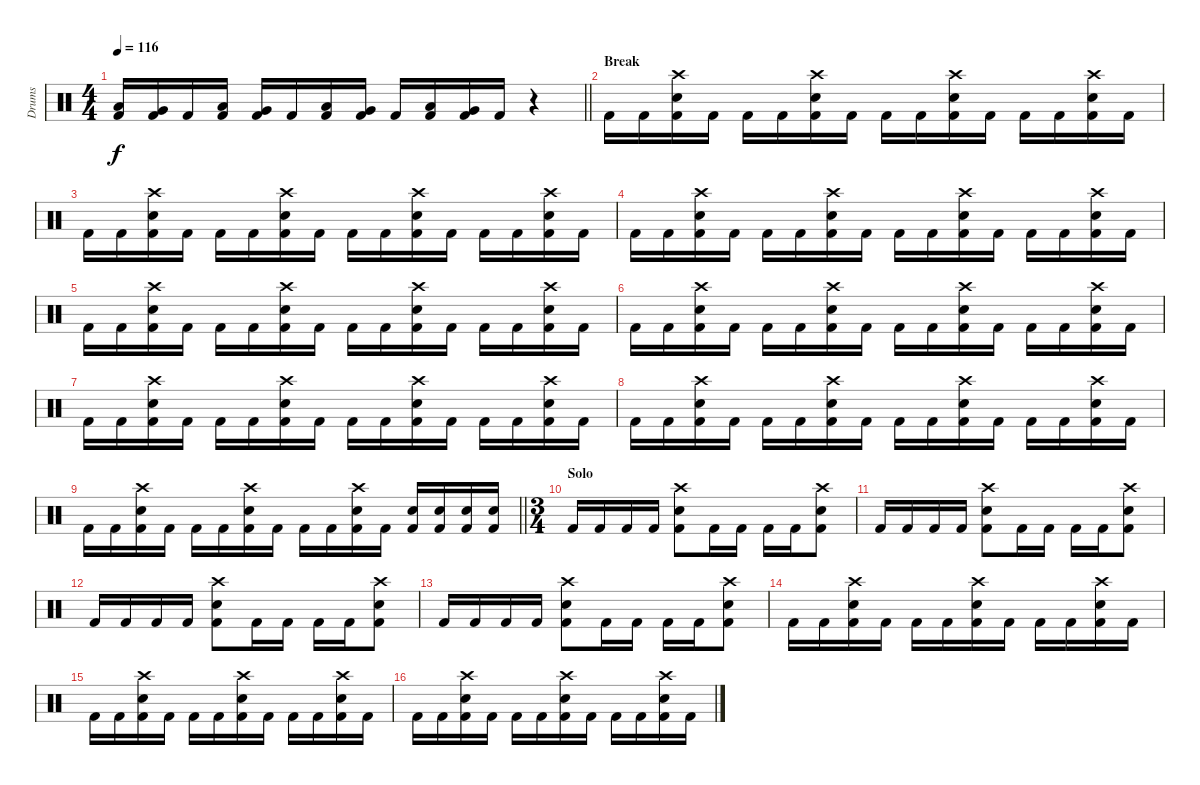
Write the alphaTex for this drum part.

\track ("Drums" "Drums") {instrument percussion}
\staff {score}
\articulation defaults
\ts (4 4)
\tempo 116
\clef neutral
\barLineRight lightlight
\ks c
("Kick (hit) 2" "Low Tom (hit)").16{dy f} ("Kick (hit) 2" "Very Low Tom (hit)").16 "Kick (hit) 2".16 ("Kick (hit) 2" "Low Tom (hit)").16 ("Kick (hit) 2" "Very Low Tom (hit)").16 "Kick (hit) 2".16 ("Kick (hit) 2" "Low Tom (hit)").16 ("Kick (hit) 2" "Very Low Tom (hit)").16 "Kick (hit) 2".16 ("Kick (hit) 2" "Low Tom (hit)").16 ("Kick (hit) 2" "Very Low Tom (hit)").16 "Kick (hit) 2".16 r.4 |
\section ("" "Break")
"Kick (hit) 2".16 "Kick (hit) 2".16 ("Kick (hit) 2" "Electric Snare (hit)" "Crash high (hit)").16 "Kick (hit) 2".16 "Kick (hit) 2".16 "Kick (hit) 2".16 ("Kick (hit) 2" "Electric Snare (hit)" "Crash high (hit)").16 "Kick (hit) 2".16 "Kick (hit) 2".16 "Kick (hit) 2".16 ("Kick (hit) 2" "Electric Snare (hit)" "Crash high (hit)").16 "Kick (hit) 2".16 "Kick (hit) 2".16 "Kick (hit) 2".16 ("Kick (hit) 2" "Electric Snare (hit)" "Crash high (hit)").16 "Kick (hit) 2".16 |
"Kick (hit) 2".16 "Kick (hit) 2".16 ("Kick (hit) 2" "Electric Snare (hit)" "Crash high (hit)").16 "Kick (hit) 2".16 "Kick (hit) 2".16 "Kick (hit) 2".16 ("Kick (hit) 2" "Electric Snare (hit)" "Crash high (hit)").16 "Kick (hit) 2".16 "Kick (hit) 2".16 "Kick (hit) 2".16 ("Kick (hit) 2" "Electric Snare (hit)" "Crash high (hit)").16 "Kick (hit) 2".16 "Kick (hit) 2".16 "Kick (hit) 2".16 ("Kick (hit) 2" "Electric Snare (hit)" "Crash high (hit)").16 "Kick (hit) 2".16 |
"Kick (hit) 2".16 "Kick (hit) 2".16 ("Kick (hit) 2" "Electric Snare (hit)" "Crash high (hit)").16 "Kick (hit) 2".16 "Kick (hit) 2".16 "Kick (hit) 2".16 ("Kick (hit) 2" "Electric Snare (hit)" "Crash high (hit)").16 "Kick (hit) 2".16 "Kick (hit) 2".16 "Kick (hit) 2".16 ("Kick (hit) 2" "Electric Snare (hit)" "Crash high (hit)").16 "Kick (hit) 2".16 "Kick (hit) 2".16 "Kick (hit) 2".16 ("Kick (hit) 2" "Electric Snare (hit)" "Crash high (hit)").16 "Kick (hit) 2".16 |
"Kick (hit) 2".16 "Kick (hit) 2".16 ("Kick (hit) 2" "Electric Snare (hit)" "Crash high (hit)").16 "Kick (hit) 2".16 "Kick (hit) 2".16 "Kick (hit) 2".16 ("Kick (hit) 2" "Electric Snare (hit)" "Crash high (hit)").16 "Kick (hit) 2".16 "Kick (hit) 2".16 "Kick (hit) 2".16 ("Kick (hit) 2" "Electric Snare (hit)" "Crash high (hit)").16 "Kick (hit) 2".16 "Kick (hit) 2".16 "Kick (hit) 2".16 ("Kick (hit) 2" "Electric Snare (hit)" "Crash high (hit)").16 "Kick (hit) 2".16 |
"Kick (hit) 2".16 "Kick (hit) 2".16 ("Kick (hit) 2" "Electric Snare (hit)" "Crash high (hit)").16 "Kick (hit) 2".16 "Kick (hit) 2".16 "Kick (hit) 2".16 ("Kick (hit) 2" "Electric Snare (hit)" "Crash high (hit)").16 "Kick (hit) 2".16 "Kick (hit) 2".16 "Kick (hit) 2".16 ("Kick (hit) 2" "Electric Snare (hit)" "Crash high (hit)").16 "Kick (hit) 2".16 "Kick (hit) 2".16 "Kick (hit) 2".16 ("Kick (hit) 2" "Electric Snare (hit)" "Crash high (hit)").16 "Kick (hit) 2".16 |
"Kick (hit) 2".16 "Kick (hit) 2".16 ("Kick (hit) 2" "Electric Snare (hit)" "Crash high (hit)").16 "Kick (hit) 2".16 "Kick (hit) 2".16 "Kick (hit) 2".16 ("Kick (hit) 2" "Electric Snare (hit)" "Crash high (hit)").16 "Kick (hit) 2".16 "Kick (hit) 2".16 "Kick (hit) 2".16 ("Kick (hit) 2" "Electric Snare (hit)" "Crash high (hit)").16 "Kick (hit) 2".16 "Kick (hit) 2".16 "Kick (hit) 2".16 ("Kick (hit) 2" "Electric Snare (hit)" "Crash high (hit)").16 "Kick (hit) 2".16 |
"Kick (hit) 2".16 "Kick (hit) 2".16 ("Kick (hit) 2" "Electric Snare (hit)" "Crash high (hit)").16 "Kick (hit) 2".16 "Kick (hit) 2".16 "Kick (hit) 2".16 ("Kick (hit) 2" "Electric Snare (hit)" "Crash high (hit)").16 "Kick (hit) 2".16 "Kick (hit) 2".16 "Kick (hit) 2".16 ("Kick (hit) 2" "Electric Snare (hit)" "Crash high (hit)").16 "Kick (hit) 2".16 "Kick (hit) 2".16 "Kick (hit) 2".16 ("Kick (hit) 2" "Electric Snare (hit)" "Crash high (hit)").16 "Kick (hit) 2".16 |
\barLineRight lightlight "Kick (hit) 2".16 "Kick (hit) 2".16
("Kick (hit) 2" "Electric Snare (hit)" "Crash high (hit)").16 "Kick (hit) 2".16 "Kick (hit) 2".16 "Kick (hit) 2".16 ("Kick (hit) 2" "Electric Snare (hit)" "Crash high (hit)").16 "Kick (hit) 2".16 "Kick (hit) 2".16 "Kick (hit) 2".16 ("Kick (hit) 2" "Electric Snare (hit)" "Crash high (hit)").16 "Kick (hit) 2".16 ("Kick (hit) 2" "Electric Snare (hit)").16 ("Kick (hit) 2" "Electric Snare (hit)").16 ("Kick (hit) 2" "Electric Snare (hit)").16 ("Kick (hit) 2" "Electric Snare (hit)").16 |
\ts (3 4)
\section ("" "Solo")
"Kick (hit) 2".16 "Kick (hit) 2".16 "Kick (hit) 2".16 "Kick (hit) 2".16 ("Kick (hit) 2" "Electric Snare (hit)" "Crash high (hit)").8 "Kick (hit) 2".16 "Kick (hit) 2".16 "Kick (hit) 2".16 "Kick (hit) 2".16 ("Kick (hit) 2" "Electric Snare (hit)" "Crash high (hit)").8 |
"Kick (hit) 2".16 "Kick (hit) 2".16 "Kick (hit) 2".16 "Kick (hit) 2".16 ("Kick (hit) 2" "Electric Snare (hit)" "Crash high (hit)").8 "Kick (hit) 2".16 "Kick (hit) 2".16 "Kick (hit) 2".16 "Kick (hit) 2".16 ("Kick (hit) 2" "Electric Snare (hit)" "Crash high (hit)").8 |
"Kick (hit) 2".16 "Kick (hit) 2".16 "Kick (hit) 2".16 "Kick (hit) 2".16 ("Kick (hit) 2" "Electric Snare (hit)" "Crash high (hit)").8 "Kick (hit) 2".16 "Kick (hit) 2".16 "Kick (hit) 2".16 "Kick (hit) 2".16 ("Kick (hit) 2" "Electric Snare (hit)" "Crash high (hit)").8 |
"Kick (hit) 2".16 "Kick (hit) 2".16 "Kick (hit) 2".16 "Kick (hit) 2".16 ("Kick (hit) 2" "Electric Snare (hit)" "Crash high (hit)").8 "Kick (hit) 2".16 "Kick (hit) 2".16 "Kick (hit) 2".16 "Kick (hit) 2".16 ("Kick (hit) 2" "Electric Snare (hit)" "Crash high (hit)").8 |
"Kick (hit) 2".16 "Kick (hit) 2".16 ("Kick (hit) 2" "Electric Snare (hit)" "Crash high (hit)").16 "Kick (hit) 2".16 "Kick (hit) 2".16 "Kick (hit) 2".16 ("Kick (hit) 2" "Electric Snare (hit)" "Crash high (hit)").16 "Kick (hit) 2".16 "Kick (hit) 2".16 "Kick (hit) 2".16 ("Kick (hit) 2" "Electric Snare (hit)" "Crash high (hit)").16 "Kick (hit) 2".16 |
"Kick (hit) 2".16 "Kick (hit) 2".16 ("Kick (hit) 2" "Electric Snare (hit)" "Crash high (hit)").16 "Kick (hit) 2".16 "Kick (hit) 2".16 "Kick (hit) 2".16 ("Kick (hit) 2" "Electric Snare (hit)" "Crash high (hit)").16 "Kick (hit) 2".16 "Kick (hit) 2".16 "Kick (hit) 2".16 ("Kick (hit) 2" "Electric Snare (hit)" "Crash high (hit)").16 "Kick (hit) 2".16 |
"Kick (hit) 2".16 "Kick (hit) 2".16 ("Kick (hit) 2" "Electric Snare (hit)" "Crash high (hit)").16 "Kick (hit) 2".16 "Kick (hit) 2".16 "Kick (hit) 2".16 ("Kick (hit) 2" "Electric Snare (hit)" "Crash high (hit)").16 "Kick (hit) 2".16 "Kick (hit) 2".16 "Kick (hit) 2".16 ("Kick (hit) 2" "Electric Snare (hit)" "Crash high (hit)").16 "Kick (hit) 2".16
